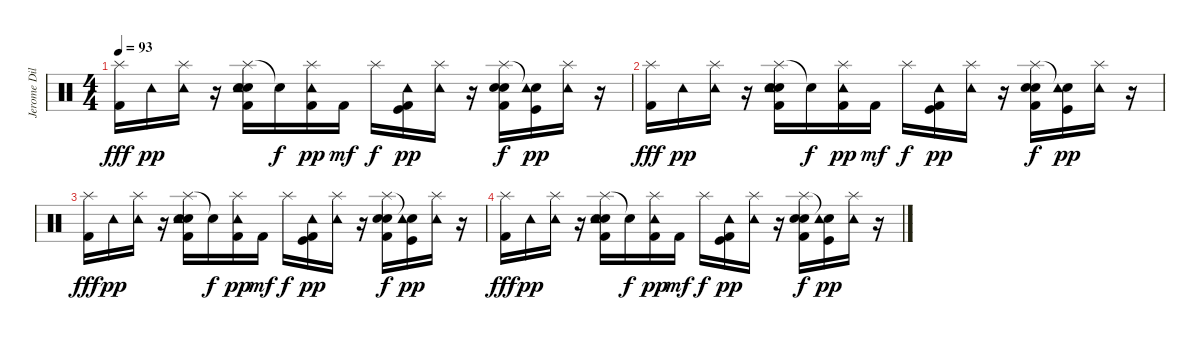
\track ("Jerome Dillon" "Jerome Dil") {instrument percussion}
\staff {score}
\articulation defaults
\ts (4 4)
\tempo 93
\clef neutral
\ks c
("Splash (hit)" "Kick (hit) 2").16{dy fff} "Tambourine (hit)".16{dy pp} ("Splash (hit)" "Tambourine (hit)").16 r.16 ("Splash (hit)" "Hand Clap (hit)" "Snare (hit) 2" "Kick (hit) 2" "Tambourine (hit)").16 "Snare (hit)"{t}.16{dy f} ("Splash (hit)" "Kick (hit) 2" "Tambourine (hit)").16{dy pp} "Kick (hit) 2".16{dy mf} "Splash (hit)".16{dy f} ("Kick (hit)" "Kick (hit) 2" "Tambourine (hit)").16{dy pp} ("Splash (hit)" "Tambourine (hit)").16 r.16 ("Splash (hit)" "Hand Clap (hit)" "Snare (hit) 2" "Kick (hit) 2").16{dy f} ("Snare (hit)"{t} "Kick (hit)" "Tambourine (hit)").16{dy pp} ("Splash (hit)" "Tambourine (hit)").16 r.16 |
("Splash (hit)" "Kick (hit) 2").16{dy fff} "Tambourine (hit)".16{dy pp} ("Splash (hit)" "Tambourine (hit)").16 r.16 ("Splash (hit)" "Hand Clap (hit)" "Snare (hit) 2" "Kick (hit) 2" "Tambourine (hit)").16 "Snare (hit)"{t}.16{dy f} ("Splash (hit)" "Kick (hit) 2" "Tambourine (hit)").16{dy pp} "Kick (hit) 2".16{dy mf} "Splash (hit)".16{dy f} ("Kick (hit)" "Kick (hit) 2" "Tambourine (hit)").16{dy pp} ("Splash (hit)" "Tambourine (hit)").16 r.16 ("Splash (hit)" "Hand Clap (hit)" "Snare (hit) 2" "Kick (hit) 2").16{dy f} ("Snare (hit)"{t} "Kick (hit)" "Tambourine (hit)").16{dy pp} ("Splash (hit)" "Tambourine (hit)").16 r.16 |
("Splash (hit)" "Kick (hit) 2").16{dy fff} "Tambourine (hit)".16{dy pp} ("Splash (hit)" "Tambourine (hit)").16 r.16 ("Splash (hit)" "Hand Clap (hit)" "Snare (hit) 2" "Kick (hit) 2" "Tambourine (hit)").16 "Snare (hit)"{t}.16{dy f} ("Splash (hit)" "Kick (hit) 2" "Tambourine (hit)").16{dy pp} "Kick (hit) 2".16{dy mf} "Splash (hit)".16{dy f} ("Kick (hit)" "Kick (hit) 2" "Tambourine (hit)").16{dy pp} ("Splash (hit)" "Tambourine (hit)").16 r.16 ("Splash (hit)" "Hand Clap (hit)" "Snare (hit) 2" "Kick (hit) 2").16{dy f} ("Snare (hit)"{t} "Kick (hit)" "Tambourine (hit)").16{dy pp} ("Splash (hit)" "Tambourine (hit)").16 r.16 |
("Splash (hit)" "Kick (hit) 2").16{dy fff} "Tambourine (hit)".16{dy pp} ("Splash (hit)" "Tambourine (hit)").16 r.16 ("Splash (hit)" "Hand Clap (hit)" "Snare (hit) 2" "Kick (hit) 2" "Tambourine (hit)").16 "Snare (hit)"{t}.16{dy f} ("Splash (hit)" "Kick (hit) 2" "Tambourine (hit)").16{dy pp} "Kick (hit) 2".16{dy mf} "Splash (hit)".16{dy f} ("Kick (hit)" "Kick (hit) 2" "Tambourine (hit)").16{dy pp} ("Splash (hit)" "Tambourine (hit)").16 r.16 ("Splash (hit)" "Hand Clap (hit)" "Snare (hit) 2" "Kick (hit) 2").16{dy f} ("Snare (hit)"{t} "Kick (hit)" "Tambourine (hit)").16{dy pp} ("Splash (hit)" "Tambourine (hit)").16 r.16
